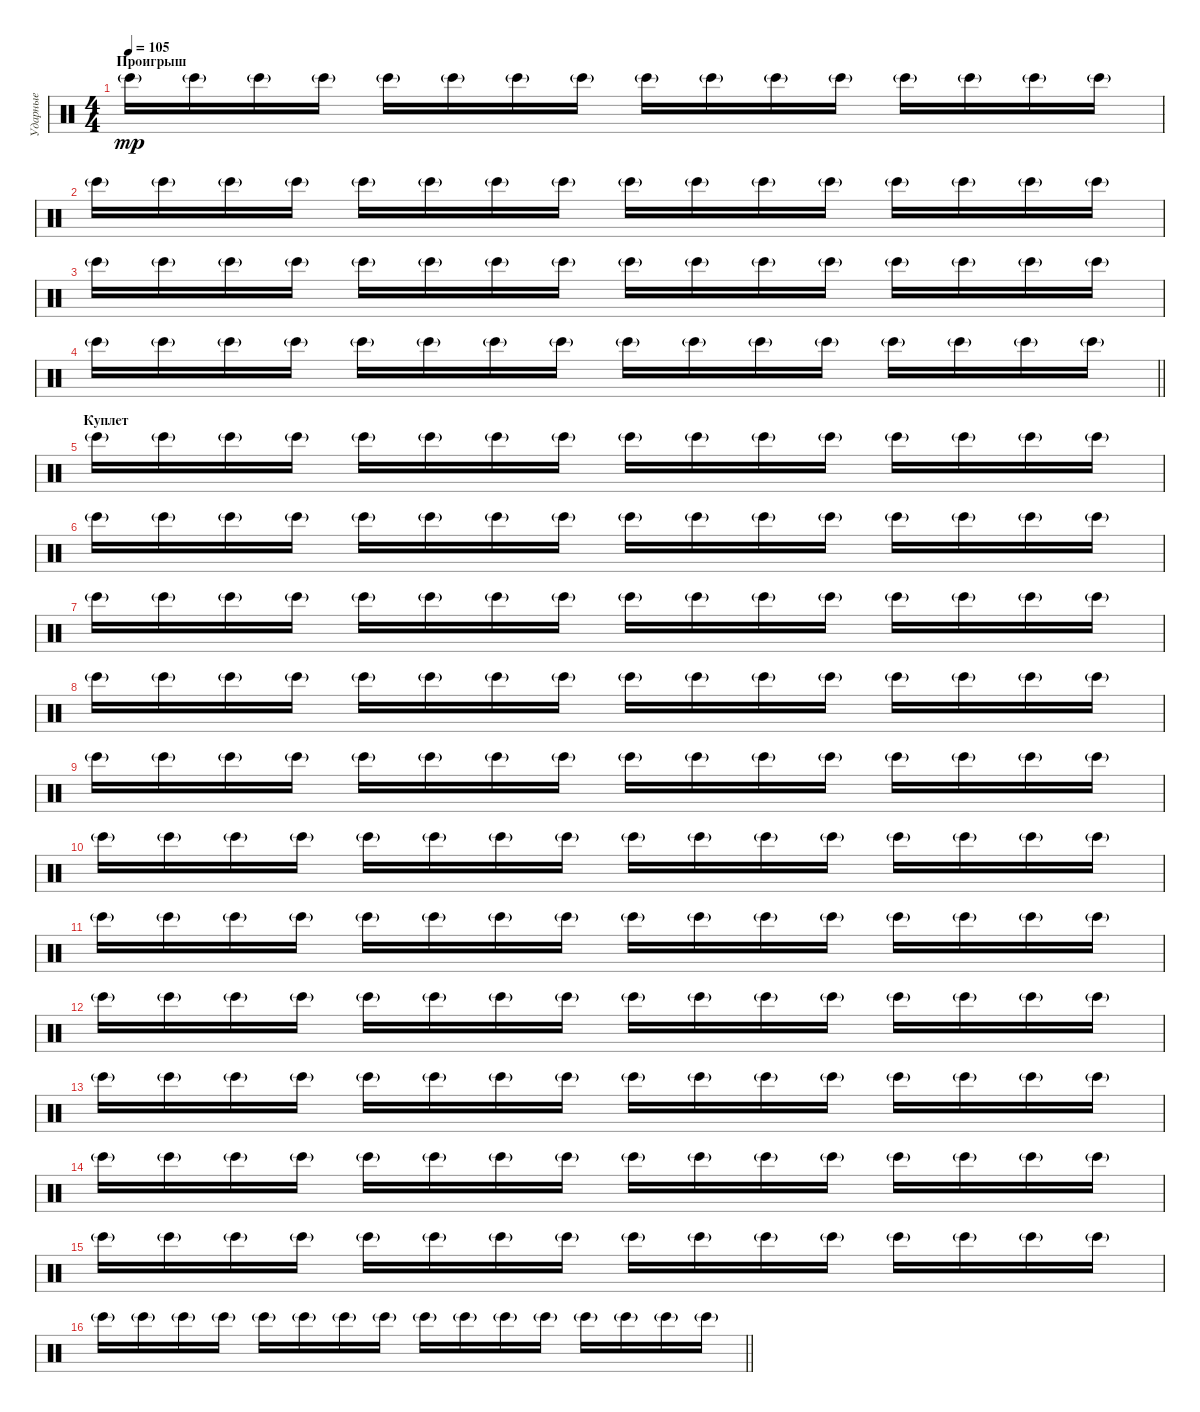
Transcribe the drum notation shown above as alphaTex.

\track ("Ударные" "Ударные") {instrument percussion}
\staff {score}
\articulation defaults
\ts (4 4)
\section ("" "Проигрыш")
\tempo 105
\clef neutral
\ks c "Bongo High (hit)"{g}.16{dy mp} "Bongo High (hit)"{g}.16 "Bongo High (hit)"{g}.16 "Bongo High (hit)"{g}.16 "Bongo High (hit)"{g}.16 "Bongo High (hit)"{g}.16 "Bongo High (hit)"{g}.16 "Bongo High (hit)"{g}.16 "Bongo High (hit)"{g}.16 "Bongo High (hit)"{g}.16 "Bongo High (hit)"{g}.16 "Bongo High (hit)"{g}.16 "Bongo High (hit)"{g}.16 "Bongo High (hit)"{g}.16 "Bongo High (hit)"{g}.16 "Bongo High (hit)"{g}.16
|
"Bongo High (hit)"{g}.16 "Bongo High (hit)"{g}.16 "Bongo High (hit)"{g}.16 "Bongo High (hit)"{g}.16 "Bongo High (hit)"{g}.16 "Bongo High (hit)"{g}.16 "Bongo High (hit)"{g}.16 "Bongo High (hit)"{g}.16 "Bongo High (hit)"{g}.16 "Bongo High (hit)"{g}.16 "Bongo High (hit)"{g}.16 "Bongo High (hit)"{g}.16 "Bongo High (hit)"{g}.16 "Bongo High (hit)"{g}.16 "Bongo High (hit)"{g}.16 "Bongo High (hit)"{g}.16 |
"Bongo High (hit)"{g}.16 "Bongo High (hit)"{g}.16 "Bongo High (hit)"{g}.16 "Bongo High (hit)"{g}.16 "Bongo High (hit)"{g}.16 "Bongo High (hit)"{g}.16 "Bongo High (hit)"{g}.16 "Bongo High (hit)"{g}.16 "Bongo High (hit)"{g}.16 "Bongo High (hit)"{g}.16 "Bongo High (hit)"{g}.16 "Bongo High (hit)"{g}.16 "Bongo High (hit)"{g}.16 "Bongo High (hit)"{g}.16 "Bongo High (hit)"{g}.16 "Bongo High (hit)"{g}.16 |
\barLineRight lightlight "Bongo High (hit)"{g}.16 "Bongo High (hit)"{g}.16 "Bongo High (hit)"{g}.16 "Bongo High (hit)"{g}.16 "Bongo High (hit)"{g}.16 "Bongo High (hit)"{g}.16 "Bongo High (hit)"{g}.16 "Bongo High (hit)"{g}.16 "Bongo High (hit)"{g}.16 "Bongo High (hit)"{g}.16 "Bongo High (hit)"{g}.16 "Bongo High (hit)"{g}.16 "Bongo High (hit)"{g}.16 "Bongo High (hit)"{g}.16 "Bongo High (hit)"{g}.16 "Bongo High (hit)"{g}.16
|
\section ("" "Куплет")
"Bongo High (hit)"{g}.16 "Bongo High (hit)"{g}.16 "Bongo High (hit)"{g}.16 "Bongo High (hit)"{g}.16 "Bongo High (hit)"{g}.16 "Bongo High (hit)"{g}.16 "Bongo High (hit)"{g}.16 "Bongo High (hit)"{g}.16 "Bongo High (hit)"{g}.16 "Bongo High (hit)"{g}.16 "Bongo High (hit)"{g}.16 "Bongo High (hit)"{g}.16 "Bongo High (hit)"{g}.16 "Bongo High (hit)"{g}.16 "Bongo High (hit)"{g}.16 "Bongo High (hit)"{g}.16 |
"Bongo High (hit)"{g}.16 "Bongo High (hit)"{g}.16 "Bongo High (hit)"{g}.16 "Bongo High (hit)"{g}.16 "Bongo High (hit)"{g}.16 "Bongo High (hit)"{g}.16 "Bongo High (hit)"{g}.16 "Bongo High (hit)"{g}.16 "Bongo High (hit)"{g}.16 "Bongo High (hit)"{g}.16 "Bongo High (hit)"{g}.16 "Bongo High (hit)"{g}.16 "Bongo High (hit)"{g}.16 "Bongo High (hit)"{g}.16 "Bongo High (hit)"{g}.16 "Bongo High (hit)"{g}.16 |
"Bongo High (hit)"{g}.16 "Bongo High (hit)"{g}.16 "Bongo High (hit)"{g}.16 "Bongo High (hit)"{g}.16 "Bongo High (hit)"{g}.16 "Bongo High (hit)"{g}.16 "Bongo High (hit)"{g}.16 "Bongo High (hit)"{g}.16 "Bongo High (hit)"{g}.16 "Bongo High (hit)"{g}.16 "Bongo High (hit)"{g}.16 "Bongo High (hit)"{g}.16 "Bongo High (hit)"{g}.16 "Bongo High (hit)"{g}.16 "Bongo High (hit)"{g}.16 "Bongo High (hit)"{g}.16 |
"Bongo High (hit)"{g}.16 "Bongo High (hit)"{g}.16 "Bongo High (hit)"{g}.16 "Bongo High (hit)"{g}.16 "Bongo High (hit)"{g}.16 "Bongo High (hit)"{g}.16 "Bongo High (hit)"{g}.16 "Bongo High (hit)"{g}.16 "Bongo High (hit)"{g}.16 "Bongo High (hit)"{g}.16 "Bongo High (hit)"{g}.16 "Bongo High (hit)"{g}.16 "Bongo High (hit)"{g}.16 "Bongo High (hit)"{g}.16 "Bongo High (hit)"{g}.16 "Bongo High (hit)"{g}.16 |
"Bongo High (hit)"{g}.16 "Bongo High (hit)"{g}.16 "Bongo High (hit)"{g}.16 "Bongo High (hit)"{g}.16 "Bongo High (hit)"{g}.16 "Bongo High (hit)"{g}.16 "Bongo High (hit)"{g}.16 "Bongo High (hit)"{g}.16 "Bongo High (hit)"{g}.16 "Bongo High (hit)"{g}.16 "Bongo High (hit)"{g}.16 "Bongo High (hit)"{g}.16 "Bongo High (hit)"{g}.16 "Bongo High (hit)"{g}.16 "Bongo High (hit)"{g}.16 "Bongo High (hit)"{g}.16 |
"Bongo High (hit)"{g}.16 "Bongo High (hit)"{g}.16 "Bongo High (hit)"{g}.16 "Bongo High (hit)"{g}.16 "Bongo High (hit)"{g}.16 "Bongo High (hit)"{g}.16 "Bongo High (hit)"{g}.16 "Bongo High (hit)"{g}.16 "Bongo High (hit)"{g}.16 "Bongo High (hit)"{g}.16 "Bongo High (hit)"{g}.16 "Bongo High (hit)"{g}.16 "Bongo High (hit)"{g}.16 "Bongo High (hit)"{g}.16 "Bongo High (hit)"{g}.16 "Bongo High (hit)"{g}.16 |
"Bongo High (hit)"{g}.16 "Bongo High (hit)"{g}.16 "Bongo High (hit)"{g}.16 "Bongo High (hit)"{g}.16 "Bongo High (hit)"{g}.16 "Bongo High (hit)"{g}.16 "Bongo High (hit)"{g}.16 "Bongo High (hit)"{g}.16 "Bongo High (hit)"{g}.16 "Bongo High (hit)"{g}.16 "Bongo High (hit)"{g}.16 "Bongo High (hit)"{g}.16 "Bongo High (hit)"{g}.16 "Bongo High (hit)"{g}.16 "Bongo High (hit)"{g}.16 "Bongo High (hit)"{g}.16 |
"Bongo High (hit)"{g}.16 "Bongo High (hit)"{g}.16 "Bongo High (hit)"{g}.16 "Bongo High (hit)"{g}.16 "Bongo High (hit)"{g}.16 "Bongo High (hit)"{g}.16 "Bongo High (hit)"{g}.16 "Bongo High (hit)"{g}.16 "Bongo High (hit)"{g}.16 "Bongo High (hit)"{g}.16 "Bongo High (hit)"{g}.16 "Bongo High (hit)"{g}.16 "Bongo High (hit)"{g}.16 "Bongo High (hit)"{g}.16 "Bongo High (hit)"{g}.16 "Bongo High (hit)"{g}.16 |
"Bongo High (hit)"{g}.16 "Bongo High (hit)"{g}.16 "Bongo High (hit)"{g}.16 "Bongo High (hit)"{g}.16 "Bongo High (hit)"{g}.16 "Bongo High (hit)"{g}.16 "Bongo High (hit)"{g}.16 "Bongo High (hit)"{g}.16 "Bongo High (hit)"{g}.16 "Bongo High (hit)"{g}.16 "Bongo High (hit)"{g}.16 "Bongo High (hit)"{g}.16 "Bongo High (hit)"{g}.16 "Bongo High (hit)"{g}.16 "Bongo High (hit)"{g}.16 "Bongo High (hit)"{g}.16 |
"Bongo High (hit)"{g}.16 "Bongo High (hit)"{g}.16 "Bongo High (hit)"{g}.16 "Bongo High (hit)"{g}.16 "Bongo High (hit)"{g}.16 "Bongo High (hit)"{g}.16 "Bongo High (hit)"{g}.16 "Bongo High (hit)"{g}.16 "Bongo High (hit)"{g}.16 "Bongo High (hit)"{g}.16 "Bongo High (hit)"{g}.16 "Bongo High (hit)"{g}.16 "Bongo High (hit)"{g}.16 "Bongo High (hit)"{g}.16 "Bongo High (hit)"{g}.16 "Bongo High (hit)"{g}.16 |
"Bongo High (hit)"{g}.16 "Bongo High (hit)"{g}.16 "Bongo High (hit)"{g}.16 "Bongo High (hit)"{g}.16 "Bongo High (hit)"{g}.16 "Bongo High (hit)"{g}.16 "Bongo High (hit)"{g}.16 "Bongo High (hit)"{g}.16 "Bongo High (hit)"{g}.16 "Bongo High (hit)"{g}.16 "Bongo High (hit)"{g}.16 "Bongo High (hit)"{g}.16 "Bongo High (hit)"{g}.16 "Bongo High (hit)"{g}.16 "Bongo High (hit)"{g}.16 "Bongo High (hit)"{g}.16 |
\barLineRight lightlight "Bongo High (hit)"{g}.16 "Bongo High (hit)"{g}.16 "Bongo High (hit)"{g}.16 "Bongo High (hit)"{g}.16 "Bongo High (hit)"{g}.16 "Bongo High (hit)"{g}.16 "Bongo High (hit)"{g}.16 "Bongo High (hit)"{g}.16 "Bongo High (hit)"{g}.16 "Bongo High (hit)"{g}.16 "Bongo High (hit)"{g}.16 "Bongo High (hit)"{g}.16 "Bongo High (hit)"{g}.16 "Bongo High (hit)"{g}.16 "Bongo High (hit)"{g}.16 "Bongo High (hit)"{g}.16
